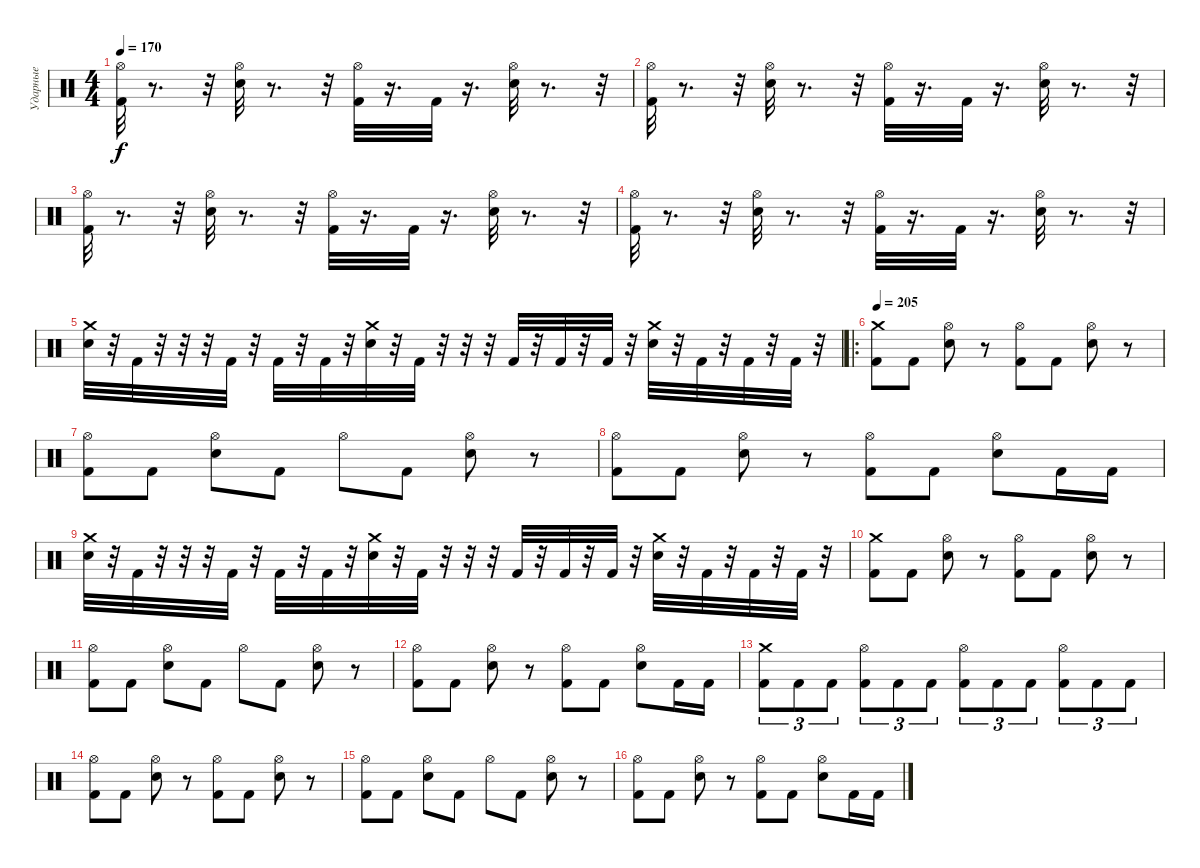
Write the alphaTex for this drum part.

\track ("Ударные" "Ударные") {instrument percussion}
\staff {score}
\articulation defaults
\ts (4 4)
\tempo 170
\clef neutral
\ks c
("Hi-Hat (open)" "Kick (hit) 2").32{dy f} r.8{d} r.32 ("Hi-Hat (open)" "Electric Snare (hit)").32 r.8{d} r.32 ("Hi-Hat (open)" "Kick (hit) 2").32 r.16{d} "Kick (hit) 2".32 r.16{d} ("Hi-Hat (open)" "Electric Snare (hit)").32 r.8{d} r.32 |
("Hi-Hat (open)" "Kick (hit) 2").32 r.8{d} r.32 ("Hi-Hat (open)" "Electric Snare (hit)").32 r.8{d} r.32 ("Hi-Hat (open)" "Kick (hit) 2").32 r.16{d} "Kick (hit) 2".32 r.16{d} ("Hi-Hat (open)" "Electric Snare (hit)").32 r.8{d} r.32 |
("Hi-Hat (open)" "Kick (hit) 2").32 r.8{d} r.32 ("Hi-Hat (open)" "Electric Snare (hit)").32 r.8{d} r.32 ("Hi-Hat (open)" "Kick (hit) 2").32 r.16{d} "Kick (hit) 2".32 r.16{d} ("Hi-Hat (open)" "Electric Snare (hit)").32 r.8{d} r.32 |
("Hi-Hat (open)" "Kick (hit) 2").32 r.8{d} r.32 ("Hi-Hat (open)" "Electric Snare (hit)").32 r.8{d} r.32 ("Hi-Hat (open)" "Kick (hit) 2").32 r.16{d} "Kick (hit) 2".32 r.16{d} ("Hi-Hat (open)" "Electric Snare (hit)").32 r.8{d} r.32 |
("Crash medium (hit)" "Electric Snare (hit)").32 r.32 "Kick (hit) 2".32 r.32 r.32 r.32 "Kick (hit) 2".32 r.32 "Kick (hit) 2".32 r.32 "Kick (hit) 2".32 r.32 ("Crash medium (hit)" "Electric Snare (hit)").32 r.32 "Kick (hit) 2".32 r.32 r.32 r.32 "Kick (hit) 2".32 r.32 "Kick (hit) 2".32 r.32 "Kick (hit) 2".32 r.32 ("Crash medium (hit)" "Electric Snare (hit)").32 r.32 "Kick (hit) 2".32 r.32 "Kick (hit) 2".32 r.32 "Kick (hit) 2".32 r.32 |
\ro
\tempo 205
("Crash medium (hit)" "Kick (hit) 2").8 "Kick (hit) 2".8 ("Hi-Hat (open)" "Electric Snare (hit)").8 r.8 ("Hi-Hat (open)" "Kick (hit) 2").8 "Kick (hit) 2".8 ("Hi-Hat (open)" "Electric Snare (hit)").8 r.8 |
("Hi-Hat (open)" "Kick (hit) 2").8 "Kick (hit) 2".8 ("Hi-Hat (open)" "Electric Snare (hit)").8 "Kick (hit) 2".8 "Hi-Hat (open)".8 "Kick (hit) 2".8 ("Hi-Hat (open)" "Electric Snare (hit)").8 r.8 |
("Hi-Hat (open)" "Kick (hit) 2").8 "Kick (hit) 2".8 ("Hi-Hat (open)" "Electric Snare (hit)").8 r.8 ("Hi-Hat (open)" "Kick (hit) 2").8 "Kick (hit) 2".8 ("Hi-Hat (open)" "Electric Snare (hit)").8 "Kick (hit) 2".16 "Kick (hit) 2".16 |
("Crash medium (hit)" "Electric Snare (hit)").32 r.32 "Kick (hit) 2".32 r.32 r.32 r.32 "Kick (hit) 2".32 r.32 "Kick (hit) 2".32 r.32 "Kick (hit) 2".32 r.32 ("Crash medium (hit)" "Electric Snare (hit)").32 r.32 "Kick (hit) 2".32 r.32 r.32 r.32 "Kick (hit) 2".32 r.32 "Kick (hit) 2".32 r.32 "Kick (hit) 2".32 r.32 ("Crash medium (hit)" "Electric Snare (hit)").32 r.32 "Kick (hit) 2".32 r.32 "Kick (hit) 2".32 r.32 "Kick (hit) 2".32 r.32 |
("Crash medium (hit)" "Kick (hit) 2").8 "Kick (hit) 2".8 ("Hi-Hat (open)" "Electric Snare (hit)").8 r.8 ("Hi-Hat (open)" "Kick (hit) 2").8 "Kick (hit) 2".8 ("Hi-Hat (open)" "Electric Snare (hit)").8 r.8 |
("Hi-Hat (open)" "Kick (hit) 2").8 "Kick (hit) 2".8 ("Hi-Hat (open)" "Electric Snare (hit)").8 "Kick (hit) 2".8 "Hi-Hat (open)".8 "Kick (hit) 2".8 ("Hi-Hat (open)" "Electric Snare (hit)").8 r.8 |
("Hi-Hat (open)" "Kick (hit) 2").8 "Kick (hit) 2".8 ("Hi-Hat (open)" "Electric Snare (hit)").8 r.8 ("Hi-Hat (open)" "Kick (hit) 2").8 "Kick (hit) 2".8 ("Hi-Hat (open)" "Electric Snare (hit)").8 "Kick (hit) 2".16 "Kick (hit) 2".16 |
("Crash medium (hit)" "Kick (hit) 2").8{tu (3 2)} "Kick (hit) 2".8{tu (3 2)} "Kick (hit) 2".8{tu (3 2)} ("Hi-Hat (open)" "Kick (hit) 2").8{tu (3 2)} "Kick (hit) 2".8{tu (3 2)} "Kick (hit) 2".8{tu (3 2)} ("Hi-Hat (open)" "Kick (hit) 2").8{tu (3 2)} "Kick (hit) 2".8{tu (3 2)} "Kick (hit) 2".8{tu (3 2)} ("Hi-Hat (open)" "Kick (hit) 2").8{tu (3 2)} "Kick (hit) 2".8{tu (3 2)} "Kick (hit) 2".8{tu (3 2)} |
("Hi-Hat (open)" "Kick (hit) 2").8 "Kick (hit) 2".8 ("Hi-Hat (open)" "Electric Snare (hit)").8 r.8 ("Hi-Hat (open)" "Kick (hit) 2").8 "Kick (hit) 2".8 ("Hi-Hat (open)" "Electric Snare (hit)").8 r.8 |
("Hi-Hat (open)" "Kick (hit) 2").8 "Kick (hit) 2".8 ("Hi-Hat (open)" "Electric Snare (hit)").8 "Kick (hit) 2".8 "Hi-Hat (open)".8 "Kick (hit) 2".8 ("Hi-Hat (open)" "Electric Snare (hit)").8 r.8 |
("Hi-Hat (open)" "Kick (hit) 2").8 "Kick (hit) 2".8 ("Hi-Hat (open)" "Electric Snare (hit)").8 r.8 ("Hi-Hat (open)" "Kick (hit) 2").8 "Kick (hit) 2".8 ("Hi-Hat (open)" "Electric Snare (hit)").8 "Kick (hit) 2".16 "Kick (hit) 2".16
